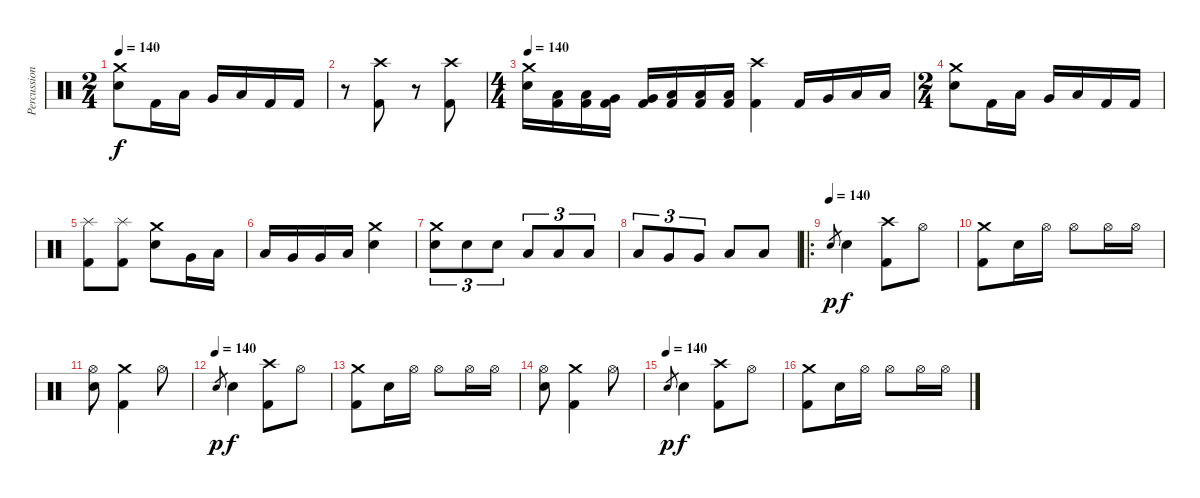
\track ("Percussion" "Percussion") {instrument percussion}
\staff {score}
\articulation defaults
\ts (2 4)
\tempo 140
\clef neutral
\ks c
("Crash medium (hit)" "Electric Snare (hit)").8{dy f} "Kick (hit) 2".16 "Low Floor Tom (hit)".16 "Very Low Tom (hit)".16 "Low Floor Tom (hit)".16 "Kick (hit) 2".16 "Kick (hit) 2".16 |
r.8 ("Crash high (hit)" "Kick (hit) 2").8 r.8 ("Crash high (hit)" "Kick (hit) 2").8 |
\ts (4 4)
\tempo 140
("Crash medium (hit)" "Electric Snare (hit)").16 ("Low Tom (hit)" "Kick (hit) 2").16 ("Low Tom (hit)" "Kick (hit) 2").16 ("Very Low Tom (hit)" "Kick (hit) 2").16 ("Very Low Tom (hit)" "Kick (hit) 2").16 ("Low Floor Tom (hit)" "Kick (hit) 2").16 ("Low Floor Tom (hit)" "Kick (hit) 2").16 ("Low Floor Tom (hit)" "Kick (hit) 2").16 ("Crash high (hit)" "Kick (hit) 2").4 "Kick (hit) 2".16 "Very Low Tom (hit)".16 "Low Floor Tom (hit)".16 "Low Floor Tom (hit)".16 |
\ts (2 4)
("Crash medium (hit)" "Electric Snare (hit)").8 "Kick (hit) 2".16 "Low Floor Tom (hit)".16 "Very Low Tom (hit)".16 "Low Floor Tom (hit)".16 "Kick (hit) 2".16 "Kick (hit) 2".16 |
("Splash (hit)" "Kick (hit) 2").8 ("Splash (hit)" "Kick (hit) 2").8 ("Crash medium (hit)" "Electric Snare (hit)").8 "Very Low Tom (hit)".16 "Low Floor Tom (hit)".16 |
"Low Floor Tom (hit)".16 "Very Low Tom (hit)".16 "Very Low Tom (hit)".16 "Low Floor Tom (hit)".16 ("Crash medium (hit)" "Electric Snare (hit)").4 |
("Crash medium (hit)" "Electric Snare (hit)").8{tu (3 2)} "Electric Snare (hit)".8{tu (3 2)} "Electric Snare (hit)".8{tu (3 2)} "Low Tom (hit)".8{tu (3 2)} "Low Tom (hit)".8{tu (3 2)} "Low Tom (hit)".8{tu (3 2)} |
"Low Tom (hit)".8{tu (3 2)} "Very Low Tom (hit)".8{tu (3 2)} "Very Low Tom (hit)".8{tu (3 2)} "Low Floor Tom (hit)".8 "Low Floor Tom (hit)".8 |
\ro
\tempo (140)
"Electric Snare (hit)".8{gr dy p} "Electric Snare (hit)".4{dy f} ("Crash high (hit)" "Kick (hit) 2").8 "Hi-Hat (open)".8 |
("Crash medium (hit)" "Kick (hit) 2").8 "Electric Snare (hit)".16 "Hi-Hat (open)".16 "Hi-Hat (open)".8 "Hi-Hat (open)".16 "Hi-Hat (open)".16 |
("Hi-Hat (open)" "Electric Snare (hit)").8 ("Crash medium (hit)" "Kick (hit) 2").4 "Hi-Hat (open)".8 |
\tempo (140)
"Electric Snare (hit)".8{gr dy p} "Electric Snare (hit)".4{dy f} ("Crash high (hit)" "Kick (hit) 2").8 "Hi-Hat (open)".8 |
("Crash medium (hit)" "Kick (hit) 2").8 "Electric Snare (hit)".16 "Hi-Hat (open)".16 "Hi-Hat (open)".8 "Hi-Hat (open)".16 "Hi-Hat (open)".16 |
("Hi-Hat (open)" "Electric Snare (hit)").8 ("Crash medium (hit)" "Kick (hit) 2").4 "Hi-Hat (open)".8 |
\tempo (140)
"Electric Snare (hit)".8{gr dy p} "Electric Snare (hit)".4{dy f} ("Crash high (hit)" "Kick (hit) 2").8 "Hi-Hat (open)".8 |
("Crash medium (hit)" "Kick (hit) 2").8 "Electric Snare (hit)".16 "Hi-Hat (open)".16 "Hi-Hat (open)".8 "Hi-Hat (open)".16 "Hi-Hat (open)".16
